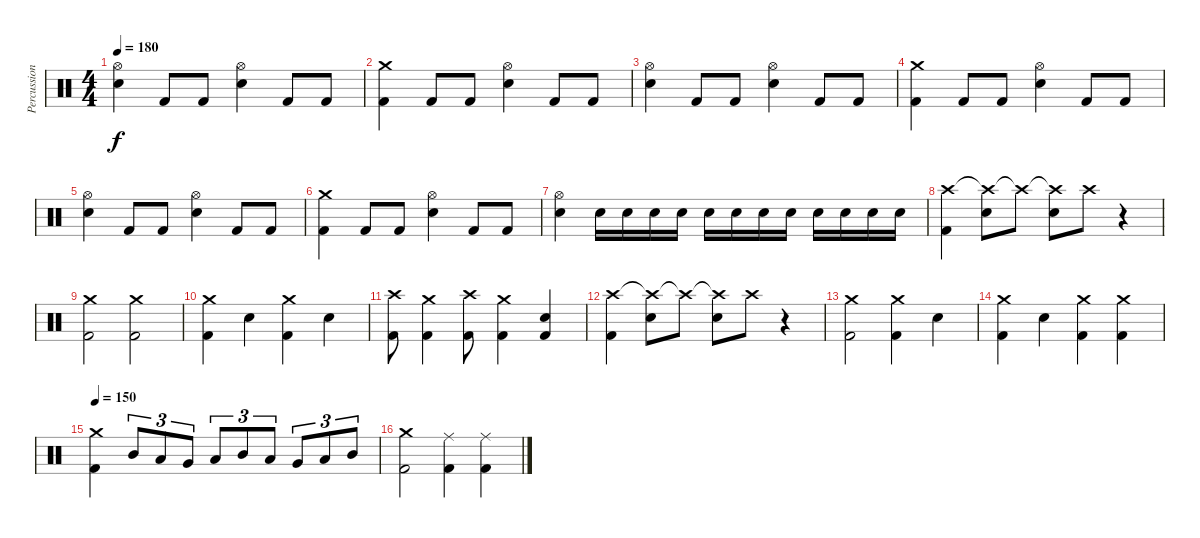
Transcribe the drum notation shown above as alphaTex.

\track ("Percussion" "Percussion") {instrument percussion}
\staff {score}
\articulation defaults
\ts (4 4)
\tempo 180
\clef neutral
\ks c
("Hi-Hat (open)" "Snare (hit) 2").4{dy f} "Kick (hit) 2".8 "Kick (hit) 2".8 ("Hi-Hat (open)" "Snare (hit) 2").4 "Kick (hit) 2".8 "Kick (hit) 2".8 |
("Crash medium (hit)" "Kick (hit) 2").4 "Kick (hit) 2".8 "Kick (hit) 2".8 ("Hi-Hat (open)" "Snare (hit) 2").4 "Kick (hit) 2".8 "Kick (hit) 2".8 |
("Hi-Hat (open)" "Snare (hit) 2").4 "Kick (hit) 2".8 "Kick (hit) 2".8 ("Hi-Hat (open)" "Snare (hit) 2").4 "Kick (hit) 2".8 "Kick (hit) 2".8 |
("Crash medium (hit)" "Kick (hit) 2").4 "Kick (hit) 2".8 "Kick (hit) 2".8 ("Hi-Hat (open)" "Snare (hit) 2").4 "Kick (hit) 2".8 "Kick (hit) 2".8 |
("Hi-Hat (open)" "Snare (hit) 2").4 "Kick (hit) 2".8 "Kick (hit) 2".8 ("Hi-Hat (open)" "Snare (hit) 2").4 "Kick (hit) 2".8 "Kick (hit) 2".8 |
("Crash medium (hit)" "Kick (hit) 2").4 "Kick (hit) 2".8 "Kick (hit) 2".8 ("Hi-Hat (open)" "Snare (hit) 2").4 "Kick (hit) 2".8 "Kick (hit) 2".8 |
("Hi-Hat (open)" "Snare (hit) 2").4 "Snare (hit) 2".16 "Snare (hit) 2".16 "Snare (hit) 2".16 "Snare (hit) 2".16 "Snare (hit) 2".16 "Snare (hit) 2".16 "Snare (hit) 2".16 "Snare (hit) 2".16 "Snare (hit) 2".16 "Snare (hit) 2".16 "Snare (hit) 2".16 "Snare (hit) 2".16 |
("Crash high (hit)" "Kick (hit) 2").4 ("Crash high (hit)"{t} "Snare (hit) 2").8 "Crash high (hit)"{t}.8 ("Crash high (hit)"{t} "Snare (hit) 2").8 "Crash high (hit)".8 r.4 |
("Crash medium (hit)" "Kick (hit) 2").2 ("Crash medium (hit)" "Kick (hit) 2").2 |
("Crash medium (hit)" "Kick (hit) 2").4 "Snare (hit) 2".4 ("Crash medium (hit)" "Kick (hit) 2").4 "Snare (hit) 2".4 |
("Crash high (hit)" "Kick (hit) 2").8 ("Crash medium (hit)" "Kick (hit) 2").4 ("Crash high (hit)" "Kick (hit) 2").8 ("Crash medium (hit)" "Kick (hit) 2").4 ("Snare (hit) 2" "Kick (hit) 2").4 |
("Crash high (hit)" "Kick (hit) 2").4 ("Crash high (hit)"{t} "Snare (hit) 2").8 "Crash high (hit)"{t}.8 ("Crash high (hit)"{t} "Snare (hit) 2").8 "Crash high (hit)".8 r.4 |
("Crash medium (hit)" "Kick (hit) 2").2 ("Crash medium (hit)" "Kick (hit) 2").4 "Snare (hit) 2".4 |
("Crash medium (hit)" "Kick (hit) 2").4 "Snare (hit) 2".4 ("Crash medium (hit)" "Kick (hit) 2").4 ("Crash medium (hit)" "Kick (hit) 2").4 |
\tempo 150
("Crash medium (hit)" "Kick (hit) 2").4 "Mid Tom (hit)".8{tu (3 2)} "Low Tom (hit)".8{tu (3 2)} "Very Low Tom (hit)".8{tu (3 2)} "Low Floor Tom (hit)".8{tu (3 2)} "Mid Tom (hit)".8{tu (3 2)} "Low Tom (hit)".8{tu (3 2)} "Very Low Tom (hit)".8{tu (3 2)} "Low Floor Tom (hit)".8{tu (3 2)} "Mid Tom (hit)".8{tu (3 2)} |
("Crash medium (hit)" "Kick (hit) 2").2 ("Ride (middle)" "Kick (hit) 2").4 ("Ride (middle)" "Kick (hit) 2").4
